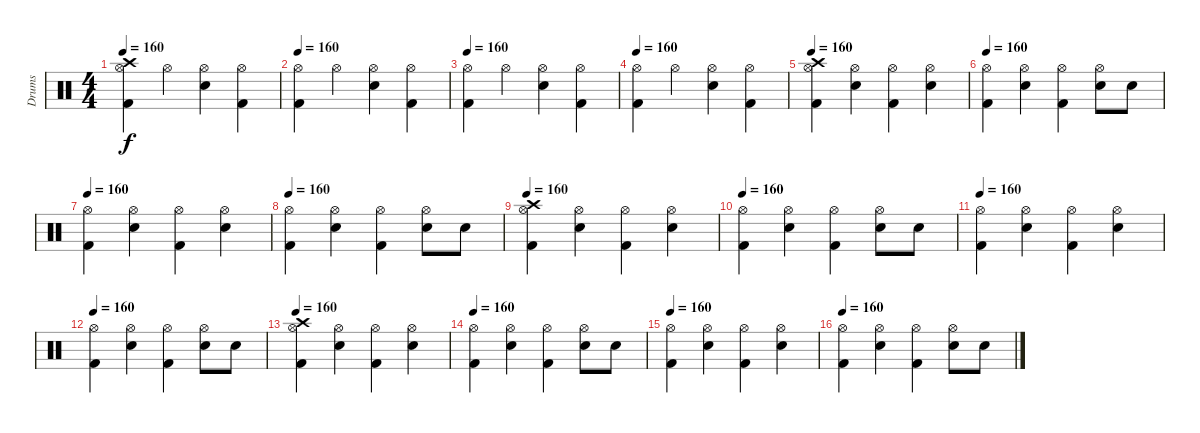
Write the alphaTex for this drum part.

\track ("Drums" "Drums") {instrument percussion}
\staff {score}
\articulation defaults
\ts (4 4)
\tempo 160
\clef neutral
\ks c
("Crash high (hit)" "Hi-Hat (open)" "Kick (hit) 2").4{dy f} "Hi-Hat (open)".4 ("Hi-Hat (open)" "Snare (hit) 2").4 ("Hi-Hat (open)" "Kick (hit) 2").4 |
\tempo 160
("Hi-Hat (open)" "Kick (hit) 2").4 "Hi-Hat (open)".4 ("Hi-Hat (open)" "Snare (hit) 2").4 ("Hi-Hat (open)" "Kick (hit) 2").4 |
\tempo 160
("Hi-Hat (open)" "Kick (hit) 2").4 "Hi-Hat (open)".4 ("Hi-Hat (open)" "Snare (hit) 2").4 ("Hi-Hat (open)" "Kick (hit) 2").4 |
\tempo 160
("Hi-Hat (open)" "Kick (hit) 2").4 "Hi-Hat (open)".4 ("Hi-Hat (open)" "Snare (hit) 2").4 ("Hi-Hat (open)" "Kick (hit) 2").4 |
\tempo 160
("Crash high (hit)" "Hi-Hat (open)" "Kick (hit) 2").4 ("Hi-Hat (open)" "Snare (hit) 2").4 ("Hi-Hat (open)" "Kick (hit) 2").4 ("Hi-Hat (open)" "Snare (hit) 2").4 |
\tempo 160
("Hi-Hat (open)" "Kick (hit) 2").4 ("Hi-Hat (open)" "Snare (hit) 2").4 ("Hi-Hat (open)" "Kick (hit) 2").4 ("Hi-Hat (open)" "Snare (hit) 2").8 "Snare (hit) 2".8 |
\tempo 160
("Hi-Hat (open)" "Kick (hit) 2").4 ("Hi-Hat (open)" "Snare (hit) 2").4 ("Hi-Hat (open)" "Kick (hit) 2").4 ("Hi-Hat (open)" "Snare (hit) 2").4 |
\tempo 160
("Hi-Hat (open)" "Kick (hit) 2").4 ("Hi-Hat (open)" "Snare (hit) 2").4 ("Hi-Hat (open)" "Kick (hit) 2").4 ("Hi-Hat (open)" "Snare (hit) 2").8 "Snare (hit) 2".8 |
\tempo 160
("Crash high (hit)" "Hi-Hat (open)" "Kick (hit) 2").4 ("Hi-Hat (open)" "Snare (hit) 2").4 ("Hi-Hat (open)" "Kick (hit) 2").4 ("Hi-Hat (open)" "Snare (hit) 2").4 |
\tempo 160
("Hi-Hat (open)" "Kick (hit) 2").4 ("Hi-Hat (open)" "Snare (hit) 2").4 ("Hi-Hat (open)" "Kick (hit) 2").4 ("Hi-Hat (open)" "Snare (hit) 2").8 "Snare (hit) 2".8 |
\tempo 160
("Hi-Hat (open)" "Kick (hit) 2").4 ("Hi-Hat (open)" "Snare (hit) 2").4 ("Hi-Hat (open)" "Kick (hit) 2").4 ("Hi-Hat (open)" "Snare (hit) 2").4 |
\tempo 160
("Hi-Hat (open)" "Kick (hit) 2").4 ("Hi-Hat (open)" "Snare (hit) 2").4 ("Hi-Hat (open)" "Kick (hit) 2").4 ("Hi-Hat (open)" "Snare (hit) 2").8 "Snare (hit) 2".8 |
\tempo 160
("Crash high (hit)" "Hi-Hat (open)" "Kick (hit) 2").4 ("Hi-Hat (open)" "Snare (hit) 2").4 ("Hi-Hat (open)" "Kick (hit) 2").4 ("Hi-Hat (open)" "Snare (hit) 2").4 |
\tempo 160
("Hi-Hat (open)" "Kick (hit) 2").4 ("Hi-Hat (open)" "Snare (hit) 2").4 ("Hi-Hat (open)" "Kick (hit) 2").4 ("Hi-Hat (open)" "Snare (hit) 2").8 "Snare (hit) 2".8 |
\tempo 160
("Hi-Hat (open)" "Kick (hit) 2").4 ("Hi-Hat (open)" "Snare (hit) 2").4 ("Hi-Hat (open)" "Kick (hit) 2").4 ("Hi-Hat (open)" "Snare (hit) 2").4 |
\tempo 160
("Hi-Hat (open)" "Kick (hit) 2").4 ("Hi-Hat (open)" "Snare (hit) 2").4 ("Hi-Hat (open)" "Kick (hit) 2").4 ("Hi-Hat (open)" "Snare (hit) 2").8 "Snare (hit) 2".8
